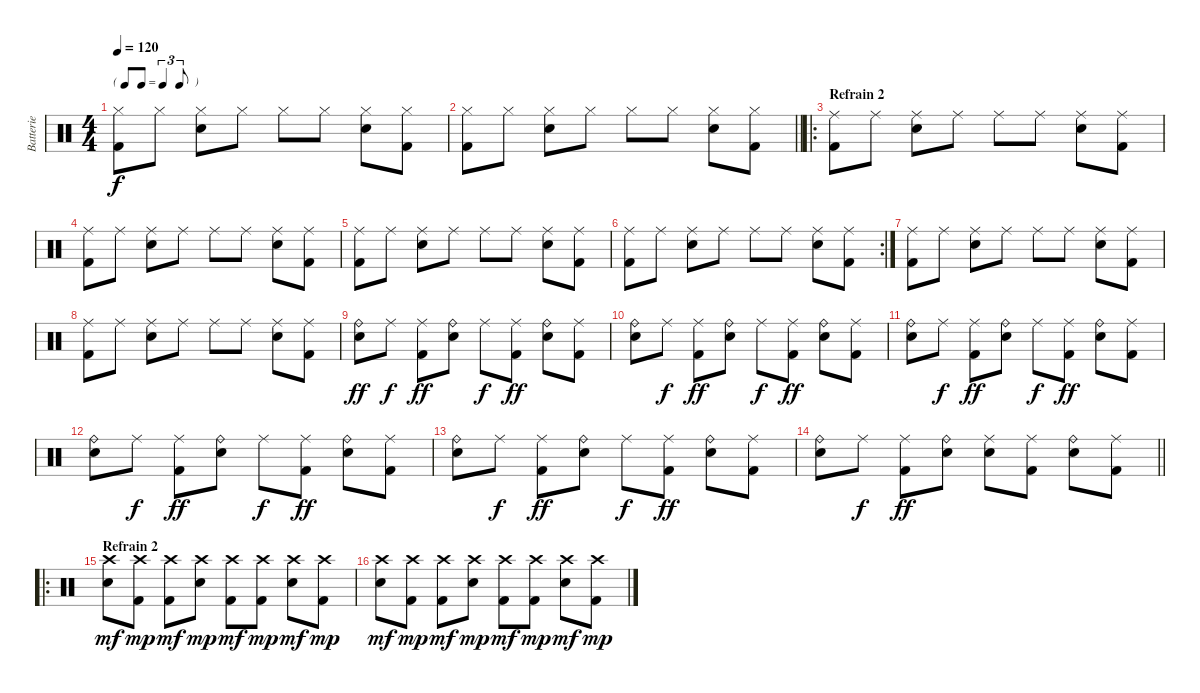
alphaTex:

\track ("Batterie" "Batterie") {instrument percussion}
\staff {score}
\articulation defaults
\ts (4 4)
\tf triplet8th
\tempo 120
\clef neutral
\ks c
("Kick (hit) 2" "Hi-Hat (closed)").8{dy f} "Hi-Hat (closed)".8 ("Hi-Hat (closed)" "Snare (hit) 2").8 "Hi-Hat (closed)".8 "Hi-Hat (closed)".8 "Hi-Hat (closed)".8 ("Snare (hit) 2" "Hi-Hat (closed)").8 ("Hi-Hat (closed)" "Kick (hit) 2").8 |
\barLineRight lightlight
("Kick (hit) 2" "Hi-Hat (closed)").8 "Hi-Hat (closed)".8 ("Hi-Hat (closed)" "Snare (hit) 2").8 "Hi-Hat (closed)".8 "Hi-Hat (closed)".8 "Hi-Hat (closed)".8 ("Snare (hit) 2" "Hi-Hat (closed)").8 ("Hi-Hat (closed)" "Kick (hit) 2").8 |
\ro
\section ("" "Refrain 2")
("Kick (hit) 2" "Ride (middle)").8 "Ride (middle)".8 ("Ride (middle)" "Snare (hit) 2").8 "Ride (middle)".8 "Ride (middle)".8 "Ride (middle)".8 ("Snare (hit) 2" "Ride (middle)").8 ("Ride (middle)" "Kick (hit) 2").8 |
("Kick (hit) 2" "Ride (middle)").8 "Ride (middle)".8 ("Ride (middle)" "Snare (hit) 2").8 "Ride (middle)".8 "Ride (middle)".8 "Ride (middle)".8 ("Snare (hit) 2" "Ride (middle)").8 ("Ride (middle)" "Kick (hit) 2").8 |
("Kick (hit) 2" "Ride (middle)").8 "Ride (middle)".8 ("Ride (middle)" "Snare (hit) 2").8 "Ride (middle)".8 "Ride (middle)".8 "Ride (middle)".8 ("Snare (hit) 2" "Ride (middle)").8 ("Ride (middle)" "Kick (hit) 2").8 |
\rc 2
("Kick (hit) 2" "Ride (middle)").8 "Ride (middle)".8 ("Ride (middle)" "Snare (hit) 2").8 "Ride (middle)".8 "Ride (middle)".8 "Ride (middle)".8 ("Snare (hit) 2" "Ride (middle)").8 ("Ride (middle)" "Kick (hit) 2").8 |
("Kick (hit) 2" "Ride (middle)").8 "Ride (middle)".8 ("Ride (middle)" "Snare (hit) 2").8 "Ride (middle)".8 "Ride (middle)".8 "Ride (middle)".8 ("Snare (hit) 2" "Ride (middle)").8 ("Ride (middle)" "Kick (hit) 2").8 |
("Kick (hit) 2" "Ride (middle)").8 "Ride (middle)".8 ("Ride (middle)" "Snare (hit) 2").8 "Ride (middle)".8 "Ride (middle)".8 "Ride (middle)".8 ("Snare (hit) 2" "Ride (middle)").8 ("Ride (middle)" "Kick (hit) 2").8 |
("Ride (bell)" "Snare (hit) 2").8{dy ff} "Ride (middle)".8{dy f} ("Ride (middle)" "Kick (hit) 2").8{dy ff} ("Ride (bell)" "Snare (hit) 2").8 "Ride (middle)".8{dy f} ("Ride (middle)" "Kick (hit) 2").8{dy ff} ("Ride (bell)" "Snare (hit) 2").8 ("Ride (middle)" "Kick (hit) 2").8 |
("Ride (bell)" "Snare (hit) 2").8 "Ride (middle)".8{dy f} ("Ride (middle)" "Kick (hit) 2").8{dy ff} ("Ride (bell)" "Snare (hit) 2").8 "Ride (middle)".8{dy f} ("Ride (middle)" "Kick (hit) 2").8{dy ff} ("Ride (bell)" "Snare (hit) 2").8 ("Ride (middle)" "Kick (hit) 2").8 |
("Ride (bell)" "Snare (hit) 2").8 "Ride (middle)".8{dy f} ("Ride (middle)" "Kick (hit) 2").8{dy ff} ("Ride (bell)" "Snare (hit) 2").8 "Ride (middle)".8{dy f} ("Ride (middle)" "Kick (hit) 2").8{dy ff} ("Ride (bell)" "Snare (hit) 2").8 ("Ride (middle)" "Kick (hit) 2").8 |
("Ride (bell)" "Snare (hit) 2").8 "Ride (middle)".8{dy f} ("Ride (middle)" "Kick (hit) 2").8{dy ff} ("Ride (bell)" "Snare (hit) 2").8 "Ride (middle)".8{dy f} ("Ride (middle)" "Kick (hit) 2").8{dy ff} ("Ride (bell)" "Snare (hit) 2").8 ("Ride (middle)" "Kick (hit) 2").8 |
("Ride (bell)" "Snare (hit) 2").8 "Ride (middle)".8{dy f} ("Ride (middle)" "Kick (hit) 2").8{dy ff} ("Ride (bell)" "Snare (hit) 2").8 "Ride (middle)".8{dy f} ("Ride (middle)" "Kick (hit) 2").8{dy ff} ("Ride (bell)" "Snare (hit) 2").8 ("Ride (middle)" "Kick (hit) 2").8 |
\barLineRight lightlight
("Ride (bell)" "Snare (hit) 2").8 "Ride (middle)".8{dy f} ("Ride (middle)" "Kick (hit) 2").8{dy ff} ("Ride (bell)" "Snare (hit) 2").8 ("Ride (middle)" "Snare (hit) 2").8 ("Ride (middle)" "Kick (hit) 2").8 ("Ride (bell)" "Snare (hit) 2").8 ("Ride (middle)" "Kick (hit) 2").8 |
\ro
\section ("" "Refrain 2")
("Snare (hit) 2" "Crash high (hit)").8{dy mf} ("Kick (hit) 2" "Crash high (hit)").8{dy mp} ("Crash high (hit)" "Kick (hit) 2").8{dy mf} ("Snare (hit) 2" "Crash high (hit)").8{dy mp} ("Kick (hit) 2" "Crash high (hit)").8{dy mf} ("Kick (hit) 2" "Crash high (hit)").8{dy mp} ("Snare (hit) 2" "Crash high (hit)").8{dy mf} ("Crash high (hit)" "Kick (hit) 2").8{dy mp} |
("Snare (hit) 2" "Crash high (hit)").8{dy mf} ("Kick (hit) 2" "Crash high (hit)").8{dy mp} ("Crash high (hit)" "Kick (hit) 2").8{dy mf} ("Snare (hit) 2" "Crash high (hit)").8{dy mp} ("Kick (hit) 2" "Crash high (hit)").8{dy mf} ("Kick (hit) 2" "Crash high (hit)").8{dy mp} ("Snare (hit) 2" "Crash high (hit)").8{dy mf} ("Crash high (hit)" "Kick (hit) 2").8{dy mp}
